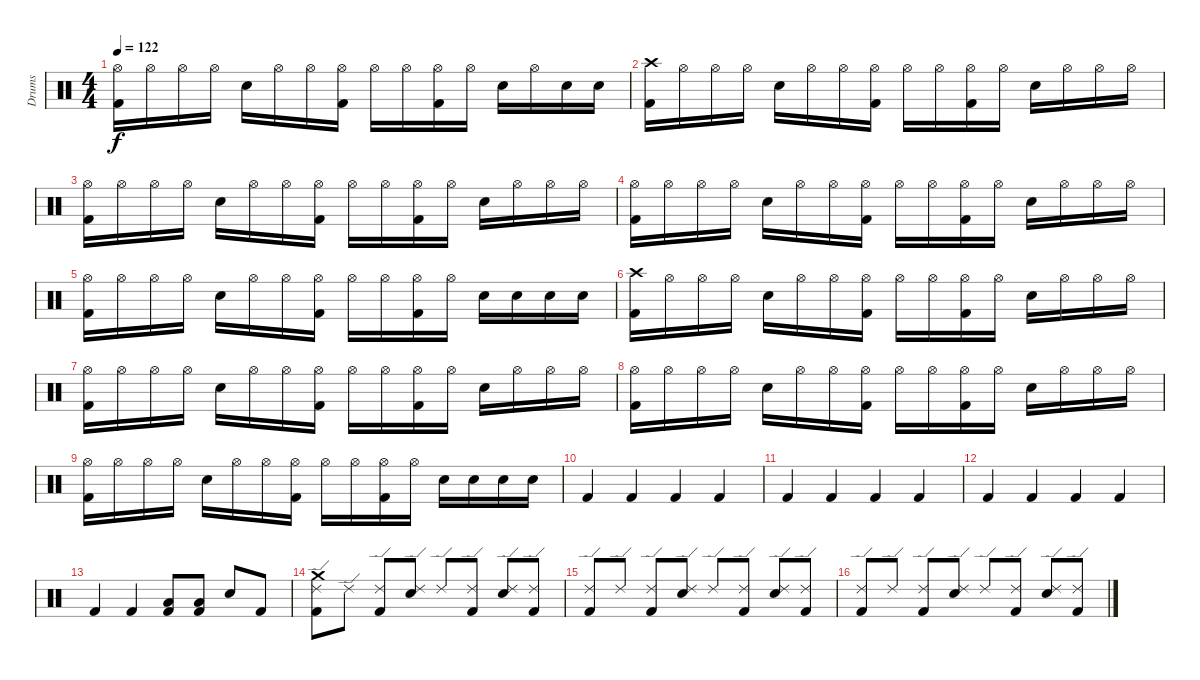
\track ("Drums" "Drums") {instrument percussion}
\staff {score}
\articulation defaults
\ts (4 4)
\tempo 122
\clef neutral
\ks c
("Hi-Hat (open)" "Kick (hit) 2").16{dy f} "Hi-Hat (open)".16 "Hi-Hat (open)".16 "Hi-Hat (open)".16 "Electric Snare (hit)".16 "Hi-Hat (open)".16 "Hi-Hat (open)".16 ("Hi-Hat (open)" "Kick (hit) 2").16 "Hi-Hat (open)".16 "Hi-Hat (open)".16 ("Hi-Hat (open)" "Kick (hit) 2").16 "Hi-Hat (open)".16 "Electric Snare (hit)".16 "Hi-Hat (open)".16 "Electric Snare (hit)".16 "Electric Snare (hit)".16 |
("Crash high (hit)" "Kick (hit) 2").16 "Hi-Hat (open)".16 "Hi-Hat (open)".16 "Hi-Hat (open)".16 "Electric Snare (hit)".16 "Hi-Hat (open)".16 "Hi-Hat (open)".16 ("Hi-Hat (open)" "Kick (hit) 2").16 "Hi-Hat (open)".16 "Hi-Hat (open)".16 ("Hi-Hat (open)" "Kick (hit) 2").16 "Hi-Hat (open)".16 "Electric Snare (hit)".16 "Hi-Hat (open)".16 "Hi-Hat (open)".16 "Hi-Hat (open)".16 |
("Hi-Hat (open)" "Kick (hit) 2").16 "Hi-Hat (open)".16 "Hi-Hat (open)".16 "Hi-Hat (open)".16 "Electric Snare (hit)".16 "Hi-Hat (open)".16 "Hi-Hat (open)".16 ("Hi-Hat (open)" "Kick (hit) 2").16 "Hi-Hat (open)".16 "Hi-Hat (open)".16 ("Hi-Hat (open)" "Kick (hit) 2").16 "Hi-Hat (open)".16 "Electric Snare (hit)".16 "Hi-Hat (open)".16 "Hi-Hat (open)".16 "Hi-Hat (open)".16 |
("Hi-Hat (open)" "Kick (hit) 2").16 "Hi-Hat (open)".16 "Hi-Hat (open)".16 "Hi-Hat (open)".16 "Electric Snare (hit)".16 "Hi-Hat (open)".16 "Hi-Hat (open)".16 ("Hi-Hat (open)" "Kick (hit) 2").16 "Hi-Hat (open)".16 "Hi-Hat (open)".16 ("Hi-Hat (open)" "Kick (hit) 2").16 "Hi-Hat (open)".16 "Electric Snare (hit)".16 "Hi-Hat (open)".16 "Hi-Hat (open)".16 "Hi-Hat (open)".16 |
("Hi-Hat (open)" "Kick (hit) 2").16 "Hi-Hat (open)".16 "Hi-Hat (open)".16 "Hi-Hat (open)".16 "Electric Snare (hit)".16 "Hi-Hat (open)".16 "Hi-Hat (open)".16 ("Hi-Hat (open)" "Kick (hit) 2").16 "Hi-Hat (open)".16 "Hi-Hat (open)".16 ("Hi-Hat (open)" "Kick (hit) 2").16 "Hi-Hat (open)".16 "Electric Snare (hit)".16 "Electric Snare (hit)".16 "Electric Snare (hit)".16 "Electric Snare (hit)".16 |
("Crash high (hit)" "Kick (hit) 2").16 "Hi-Hat (open)".16 "Hi-Hat (open)".16 "Hi-Hat (open)".16 "Electric Snare (hit)".16 "Hi-Hat (open)".16 "Hi-Hat (open)".16 ("Hi-Hat (open)" "Kick (hit) 2").16 "Hi-Hat (open)".16 "Hi-Hat (open)".16 ("Hi-Hat (open)" "Kick (hit) 2").16 "Hi-Hat (open)".16 "Electric Snare (hit)".16 "Hi-Hat (open)".16 "Hi-Hat (open)".16 "Hi-Hat (open)".16 |
("Hi-Hat (open)" "Kick (hit) 2").16 "Hi-Hat (open)".16 "Hi-Hat (open)".16 "Hi-Hat (open)".16 "Electric Snare (hit)".16 "Hi-Hat (open)".16 "Hi-Hat (open)".16 ("Hi-Hat (open)" "Kick (hit) 2").16 "Hi-Hat (open)".16 "Hi-Hat (open)".16 ("Hi-Hat (open)" "Kick (hit) 2").16 "Hi-Hat (open)".16 "Electric Snare (hit)".16 "Hi-Hat (open)".16 "Hi-Hat (open)".16 "Hi-Hat (open)".16 |
("Hi-Hat (open)" "Kick (hit) 2").16 "Hi-Hat (open)".16 "Hi-Hat (open)".16 "Hi-Hat (open)".16 "Electric Snare (hit)".16 "Hi-Hat (open)".16 "Hi-Hat (open)".16 ("Hi-Hat (open)" "Kick (hit) 2").16 "Hi-Hat (open)".16 "Hi-Hat (open)".16 ("Hi-Hat (open)" "Kick (hit) 2").16 "Hi-Hat (open)".16 "Electric Snare (hit)".16 "Hi-Hat (open)".16 "Hi-Hat (open)".16 "Hi-Hat (open)".16 |
("Hi-Hat (open)" "Kick (hit) 2").16 "Hi-Hat (open)".16 "Hi-Hat (open)".16 "Hi-Hat (open)".16 "Electric Snare (hit)".16 "Hi-Hat (open)".16 "Hi-Hat (open)".16 ("Hi-Hat (open)" "Kick (hit) 2").16 "Hi-Hat (open)".16 "Hi-Hat (open)".16 ("Hi-Hat (open)" "Kick (hit) 2").16 "Hi-Hat (open)".16 "Electric Snare (hit)".16 "Electric Snare (hit)".16 "Electric Snare (hit)".16 "Electric Snare (hit)".16 |
"Kick (hit) 2".4 "Kick (hit) 2".4 "Kick (hit) 2".4 "Kick (hit) 2".4 |
"Kick (hit) 2".4 "Kick (hit) 2".4 "Kick (hit) 2".4 "Kick (hit) 2".4 |
"Kick (hit) 2".4 "Kick (hit) 2".4 "Kick (hit) 2".4 "Kick (hit) 2".4 |
"Kick (hit) 2".4 "Kick (hit) 2".4 ("Low Tom (hit)" "Kick (hit) 2").8 ("Low Tom (hit)" "Kick (hit) 2").8 "Electric Snare (hit)".8 "Kick (hit) 2".8 |
("Ride (edge) 2" "Crash medium (hit)" "Kick (hit) 2").8 "Ride (edge) 2".8 ("Ride (edge) 2" "Kick (hit) 2").8 ("Ride (edge) 2" "Electric Snare (hit)").8 "Ride (edge) 2".8 ("Ride (edge) 2" "Kick (hit) 2").8 ("Ride (edge) 2" "Electric Snare (hit)").8 ("Ride (edge) 2" "Kick (hit) 2").8 |
("Ride (edge) 2" "Kick (hit) 2").8 "Ride (edge) 2".8 ("Ride (edge) 2" "Kick (hit) 2").8 ("Ride (edge) 2" "Electric Snare (hit)").8 "Ride (edge) 2".8 ("Ride (edge) 2" "Kick (hit) 2").8 ("Ride (edge) 2" "Electric Snare (hit)").8 ("Ride (edge) 2" "Kick (hit) 2").8 |
("Ride (edge) 2" "Kick (hit) 2").8 "Ride (edge) 2".8 ("Ride (edge) 2" "Kick (hit) 2").8 ("Ride (edge) 2" "Electric Snare (hit)").8 "Ride (edge) 2".8 ("Ride (edge) 2" "Kick (hit) 2").8 ("Ride (edge) 2" "Electric Snare (hit)").8 ("Ride (edge) 2" "Kick (hit) 2").8
